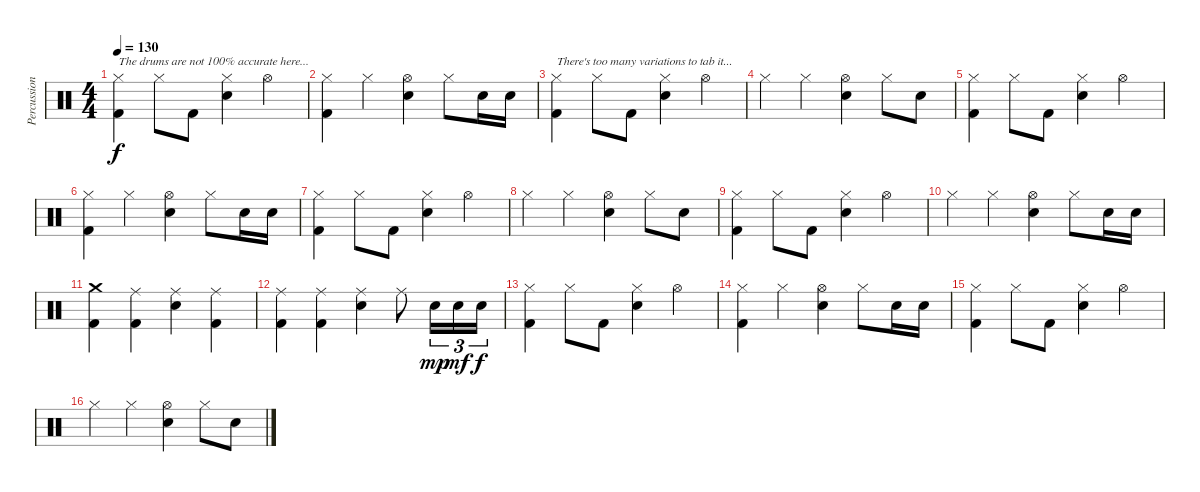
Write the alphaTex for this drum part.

\track ("Percussions" "Percussion") {instrument percussion}
\staff {score}
\articulation defaults
\ts (4 4)
\tempo 130
\clef neutral
\ks c
("Hi-Hat (closed)" "Kick (hit) 2").4{txt "The drums are not 100% accurate here..." dy f} "Hi-Hat (closed)".8 "Kick (hit) 2".8 ("Hi-Hat (closed)" "Snare (hit) 2").4 "Hi-Hat (open)".4 |
("Hi-Hat (closed)" "Kick (hit) 2").4 "Hi-Hat (closed)".4 ("Hi-Hat (open)" "Snare (hit) 2").4 "Hi-Hat (closed)".8 "Snare (hit) 2".16 "Snare (hit) 2".16 |
("Hi-Hat (closed)" "Kick (hit) 2").4{txt "There's too many variations to tab it..."} "Hi-Hat (closed)".8 "Kick (hit) 2".8 ("Hi-Hat (closed)" "Snare (hit) 2").4 "Hi-Hat (open)".4 |
"Hi-Hat (closed)".4 "Hi-Hat (closed)".4 ("Hi-Hat (open)" "Snare (hit) 2").4 "Hi-Hat (closed)".8 "Snare (hit) 2".8 |
("Hi-Hat (closed)" "Kick (hit) 2").4 "Hi-Hat (closed)".8 "Kick (hit) 2".8 ("Hi-Hat (closed)" "Snare (hit) 2").4 "Hi-Hat (open)".4 |
("Hi-Hat (closed)" "Kick (hit) 2").4 "Hi-Hat (closed)".4 ("Hi-Hat (open)" "Snare (hit) 2").4 "Hi-Hat (closed)".8 "Snare (hit) 2".16 "Snare (hit) 2".16 |
("Hi-Hat (closed)" "Kick (hit) 2").4 "Hi-Hat (closed)".8 "Kick (hit) 2".8 ("Hi-Hat (closed)" "Snare (hit) 2").4 "Hi-Hat (open)".4 |
"Hi-Hat (closed)".4 "Hi-Hat (closed)".4 ("Hi-Hat (open)" "Snare (hit) 2").4 "Hi-Hat (closed)".8 "Snare (hit) 2".8 |
("Hi-Hat (closed)" "Kick (hit) 2").4 "Hi-Hat (closed)".8 "Kick (hit) 2".8 ("Hi-Hat (closed)" "Snare (hit) 2").4 "Hi-Hat (open)".4 |
"Hi-Hat (closed)".4 "Hi-Hat (closed)".4 ("Hi-Hat (open)" "Snare (hit) 2").4 "Hi-Hat (closed)".8 "Snare (hit) 2".16 "Snare (hit) 2".16 |
("Crash medium (hit)" "Kick (hit) 2").4 ("Ride (middle)" "Kick (hit) 2").4 ("Ride (middle)" "Snare (hit) 2").4 ("Ride (middle)" "Kick (hit) 2").4 |
("Ride (middle)" "Kick (hit) 2").4 ("Ride (middle)" "Kick (hit) 2").4 ("Ride (middle)" "Snare (hit) 2").4 "Ride (middle)".8 "Snare (hit) 2".16{tu (3 2) dy mp} "Snare (hit) 2".16{tu (3 2) dy mf} "Snare (hit) 2".16{tu (3 2) dy f} |
("Hi-Hat (closed)" "Kick (hit) 2").4 "Hi-Hat (closed)".8 "Kick (hit) 2".8 ("Hi-Hat (closed)" "Snare (hit) 2").4 "Hi-Hat (open)".4 |
("Hi-Hat (closed)" "Kick (hit) 2").4 "Hi-Hat (closed)".4 ("Hi-Hat (open)" "Snare (hit) 2").4 "Hi-Hat (closed)".8 "Snare (hit) 2".16 "Snare (hit) 2".16 |
("Hi-Hat (closed)" "Kick (hit) 2").4 "Hi-Hat (closed)".8 "Kick (hit) 2".8 ("Hi-Hat (closed)" "Snare (hit) 2").4 "Hi-Hat (open)".4 |
"Hi-Hat (closed)".4 "Hi-Hat (closed)".4 ("Hi-Hat (open)" "Snare (hit) 2").4 "Hi-Hat (closed)".8 "Snare (hit) 2".8
